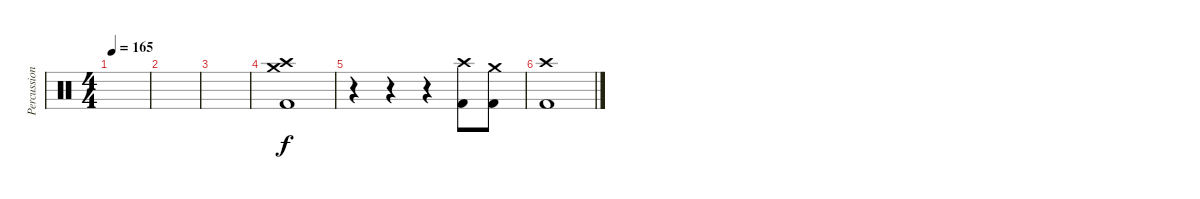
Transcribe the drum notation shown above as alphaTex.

\track ("Percussion" "Percussion") {instrument percussion}
\staff {score}
\articulation defaults
\ts (4 4)
\tempo 165
\clef neutral
\ks c
|
|
|
("Crash high (hit)" "Kick (hit) 2" "Crash medium (hit)").1 |
r.4 r.4 r.4 ("Kick (hit) 2" "Crash high (hit)").8 ("Kick (hit) 2" "Crash medium (hit)").8 |
("Kick (hit) 2" "Crash high (hit)").1
